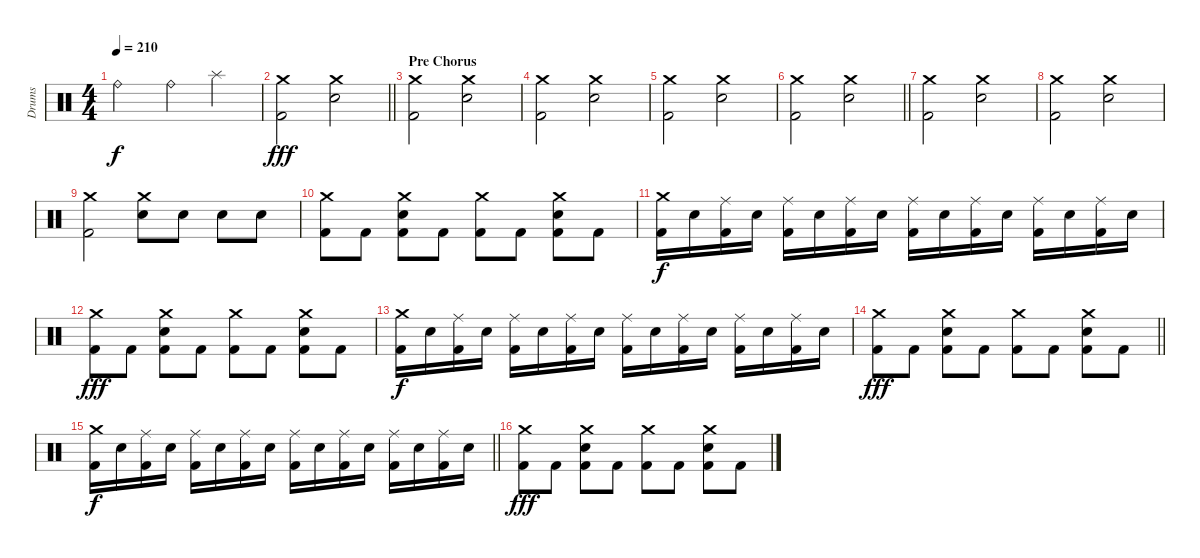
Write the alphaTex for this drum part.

\track ("Drums" "Drums") {instrument percussion}
\staff {score}
\articulation defaults
\ts (4 4)
\tempo 210
\clef neutral
\ks c "Ride (bell)".2{dy f} "Ride (bell)".4 "Splash (hit)".4
|
\barLineRight lightlight
("Crash medium (hit)" "Kick (hit) 2").2{dy fff} ("Crash medium (hit)" "Electric Snare (hit)").2 |
\section ("" "Pre Chorus")
("Crash medium (hit)" "Kick (hit) 2").2 ("Crash medium (hit)" "Electric Snare (hit)").2 |
("Crash medium (hit)" "Kick (hit) 2").2 ("Crash medium (hit)" "Electric Snare (hit)").2 |
("Crash medium (hit)" "Kick (hit) 2").2 ("Crash medium (hit)" "Electric Snare (hit)").2 |
\barLineRight lightlight
("Crash medium (hit)" "Kick (hit) 2").2 ("Crash medium (hit)" "Electric Snare (hit)").2 |
("Crash medium (hit)" "Kick (hit) 2").2 ("Crash medium (hit)" "Electric Snare (hit)").2 |
("Crash medium (hit)" "Kick (hit) 2").2 ("Crash medium (hit)" "Electric Snare (hit)").2 |
("Crash medium (hit)" "Kick (hit) 2").2 ("Crash medium (hit)" "Electric Snare (hit)").8 "Electric Snare (hit)".8 "Electric Snare (hit)".8 "Electric Snare (hit)".8 |
("Crash medium (hit)" "Kick (hit) 2").8 "Kick (hit) 2".8 ("Crash medium (hit)" "Electric Snare (hit)" "Kick (hit) 2").8 "Kick (hit) 2".8 ("Crash medium (hit)" "Kick (hit) 2").8 "Kick (hit) 2".8 ("Crash medium (hit)" "Electric Snare (hit)" "Kick (hit) 2").8 "Kick (hit) 2".8 |
("Crash medium (hit)" "Kick (hit) 2").16{dy f} "Electric Snare (hit)".16 ("Ride (middle)" "Kick (hit) 2").16 "Electric Snare (hit)".16 ("Ride (middle)" "Kick (hit) 2").16 "Electric Snare (hit)".16 ("Ride (middle)" "Kick (hit) 2").16 "Electric Snare (hit)".16 ("Ride (middle)" "Kick (hit) 2").16 "Electric Snare (hit)".16 ("Ride (middle)" "Kick (hit) 2").16 "Electric Snare (hit)".16 ("Ride (middle)" "Kick (hit) 2").16 "Electric Snare (hit)".16 ("Ride (middle)" "Kick (hit) 2").16 "Electric Snare (hit)".16 |
("Crash medium (hit)" "Kick (hit) 2").8{dy fff} "Kick (hit) 2".8 ("Crash medium (hit)" "Electric Snare (hit)" "Kick (hit) 2").8 "Kick (hit) 2".8 ("Crash medium (hit)" "Kick (hit) 2").8 "Kick (hit) 2".8 ("Crash medium (hit)" "Electric Snare (hit)" "Kick (hit) 2").8 "Kick (hit) 2".8 |
("Crash medium (hit)" "Kick (hit) 2").16{dy f} "Electric Snare (hit)".16 ("Ride (middle)" "Kick (hit) 2").16 "Electric Snare (hit)".16 ("Ride (middle)" "Kick (hit) 2").16 "Electric Snare (hit)".16 ("Ride (middle)" "Kick (hit) 2").16 "Electric Snare (hit)".16 ("Ride (middle)" "Kick (hit) 2").16 "Electric Snare (hit)".16 ("Ride (middle)" "Kick (hit) 2").16 "Electric Snare (hit)".16 ("Ride (middle)" "Kick (hit) 2").16 "Electric Snare (hit)".16 ("Ride (middle)" "Kick (hit) 2").16 "Electric Snare (hit)".16 |
\barLineRight lightlight
("Crash medium (hit)" "Kick (hit) 2").8{dy fff} "Kick (hit) 2".8 ("Crash medium (hit)" "Electric Snare (hit)" "Kick (hit) 2").8 "Kick (hit) 2".8 ("Crash medium (hit)" "Kick (hit) 2").8 "Kick (hit) 2".8 ("Crash medium (hit)" "Electric Snare (hit)" "Kick (hit) 2").8 "Kick (hit) 2".8 |
\barLineRight lightlight
("Crash medium (hit)" "Kick (hit) 2").16{dy f} "Electric Snare (hit)".16 ("Ride (middle)" "Kick (hit) 2").16 "Electric Snare (hit)".16 ("Ride (middle)" "Kick (hit) 2").16 "Electric Snare (hit)".16 ("Ride (middle)" "Kick (hit) 2").16 "Electric Snare (hit)".16 ("Ride (middle)" "Kick (hit) 2").16 "Electric Snare (hit)".16 ("Ride (middle)" "Kick (hit) 2").16 "Electric Snare (hit)".16 ("Ride (middle)" "Kick (hit) 2").16 "Electric Snare (hit)".16 ("Ride (middle)" "Kick (hit) 2").16 "Electric Snare (hit)".16 |
("Crash medium (hit)" "Kick (hit) 2").8{dy fff} "Kick (hit) 2".8 ("Crash medium (hit)" "Electric Snare (hit)" "Kick (hit) 2").8 "Kick (hit) 2".8 ("Crash medium (hit)" "Kick (hit) 2").8 "Kick (hit) 2".8 ("Crash medium (hit)" "Electric Snare (hit)" "Kick (hit) 2").8 "Kick (hit) 2".8
